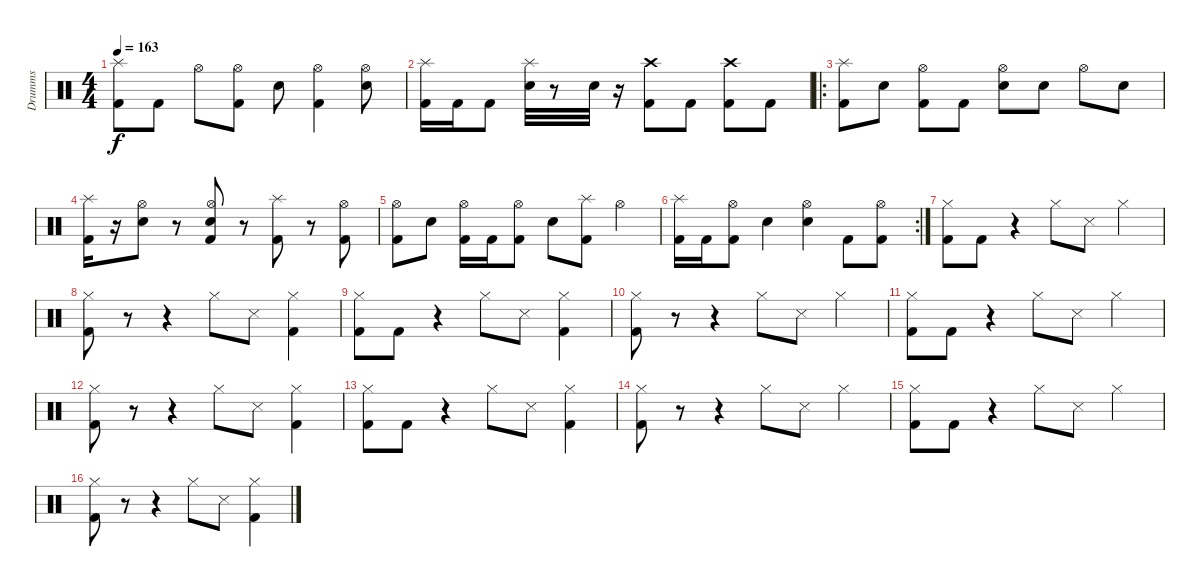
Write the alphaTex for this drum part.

\track ("Drumms" "Drumms") {instrument percussion}
\staff {score}
\articulation defaults
\ts (4 4)
\tempo 163
\clef neutral
\ks c
("Splash (hit)" "Kick (hit) 2").8{dy f} "Kick (hit) 2".8 "Hi-Hat (open)".8 ("Hi-Hat (open)" "Kick (hit) 2").8 "Snare (hit) 2".8 ("Hi-Hat (open)" "Kick (hit) 2").4 ("Hi-Hat (open)" "Snare (hit) 2").8 |
("Splash (hit)" "Kick (hit) 2").16 "Kick (hit) 2".16 "Kick (hit) 2".8 ("Splash (hit)" "Snare (hit) 2").32 r.8 "Snare (hit) 2".32 r.16 ("Crash high (hit)" "Kick (hit) 2").8 "Kick (hit) 2".8 ("Crash high (hit)" "Kick (hit) 2").8 "Kick (hit) 2".8 |
\ro
("Splash (hit)" "Kick (hit) 2").8 "Snare (hit) 2".8 ("Hi-Hat (open)" "Kick (hit) 2").8 "Kick (hit) 2".8 ("Hi-Hat (open)" "Snare (hit) 2").8 "Snare (hit) 2".8 "Hi-Hat (open)".8 "Snare (hit) 2".8 |
("Splash (hit)" "Kick (hit) 2").16 r.16 ("Hi-Hat (open)" "Snare (hit) 2").8 r.8 ("Hi-Hat (open)" "Snare (hit) 2" "Kick (hit) 2").8 r.8 ("Splash (hit)" "Kick (hit) 2").8 r.8 ("Hi-Hat (open)" "Kick (hit) 2").8 |
("Hi-Hat (open)" "Kick (hit) 2").8 "Snare (hit) 2".8 ("Hi-Hat (open)" "Kick (hit) 2").16 "Kick (hit) 2".16 ("Hi-Hat (open)" "Kick (hit) 2").8 "Snare (hit) 2".8 ("Splash (hit)" "Kick (hit) 2").8 "Hi-Hat (open)".4 |
\rc 2
("Splash (hit)" "Kick (hit) 2").16 "Kick (hit) 2".16 ("Hi-Hat (open)" "Kick (hit) 2").8 "Snare (hit) 2".4 ("Hi-Hat (open)" "Snare (hit) 2").4 "Kick (hit) 2".8 ("Hi-Hat (open)" "Kick (hit) 2").8 |
("Hi-Hat (closed)" "Kick (hit) 2").8 "Kick (hit) 2".8 r.4 "Hi-Hat (closed)".8 "Snare (side stick) 3".8 "Hi-Hat (closed)".4 |
("Hi-Hat (closed)" "Kick (hit) 2").8 r.8 r.4 "Hi-Hat (closed)".8 "Snare (side stick) 3".8 ("Hi-Hat (closed)" "Kick (hit) 2").4 |
("Hi-Hat (closed)" "Kick (hit) 2").8 "Kick (hit) 2".8 r.4 "Hi-Hat (closed)".8 "Snare (side stick) 3".8 ("Hi-Hat (closed)" "Kick (hit) 2").4 |
("Hi-Hat (closed)" "Kick (hit) 2").8 r.8 r.4 "Hi-Hat (closed)".8 "Snare (side stick) 3".8 "Hi-Hat (closed)".4 |
("Hi-Hat (closed)" "Kick (hit) 2").8 "Kick (hit) 2".8 r.4 "Hi-Hat (closed)".8 "Snare (side stick) 3".8 "Hi-Hat (closed)".4 |
("Hi-Hat (closed)" "Kick (hit) 2").8 r.8 r.4 "Hi-Hat (closed)".8 "Snare (side stick) 3".8 ("Hi-Hat (closed)" "Kick (hit) 2").4 |
("Hi-Hat (closed)" "Kick (hit) 2").8 "Kick (hit) 2".8 r.4 "Hi-Hat (closed)".8 "Snare (side stick) 3".8 ("Hi-Hat (closed)" "Kick (hit) 2").4 |
("Hi-Hat (closed)" "Kick (hit) 2").8 r.8 r.4 "Hi-Hat (closed)".8 "Snare (side stick) 3".8 "Hi-Hat (closed)".4 |
("Hi-Hat (closed)" "Kick (hit) 2").8 "Kick (hit) 2".8 r.4 "Hi-Hat (closed)".8 "Snare (side stick) 3".8 "Hi-Hat (closed)".4 |
("Hi-Hat (closed)" "Kick (hit) 2").8 r.8 r.4 "Hi-Hat (closed)".8 "Snare (side stick) 3".8 ("Hi-Hat (closed)" "Kick (hit) 2").4
